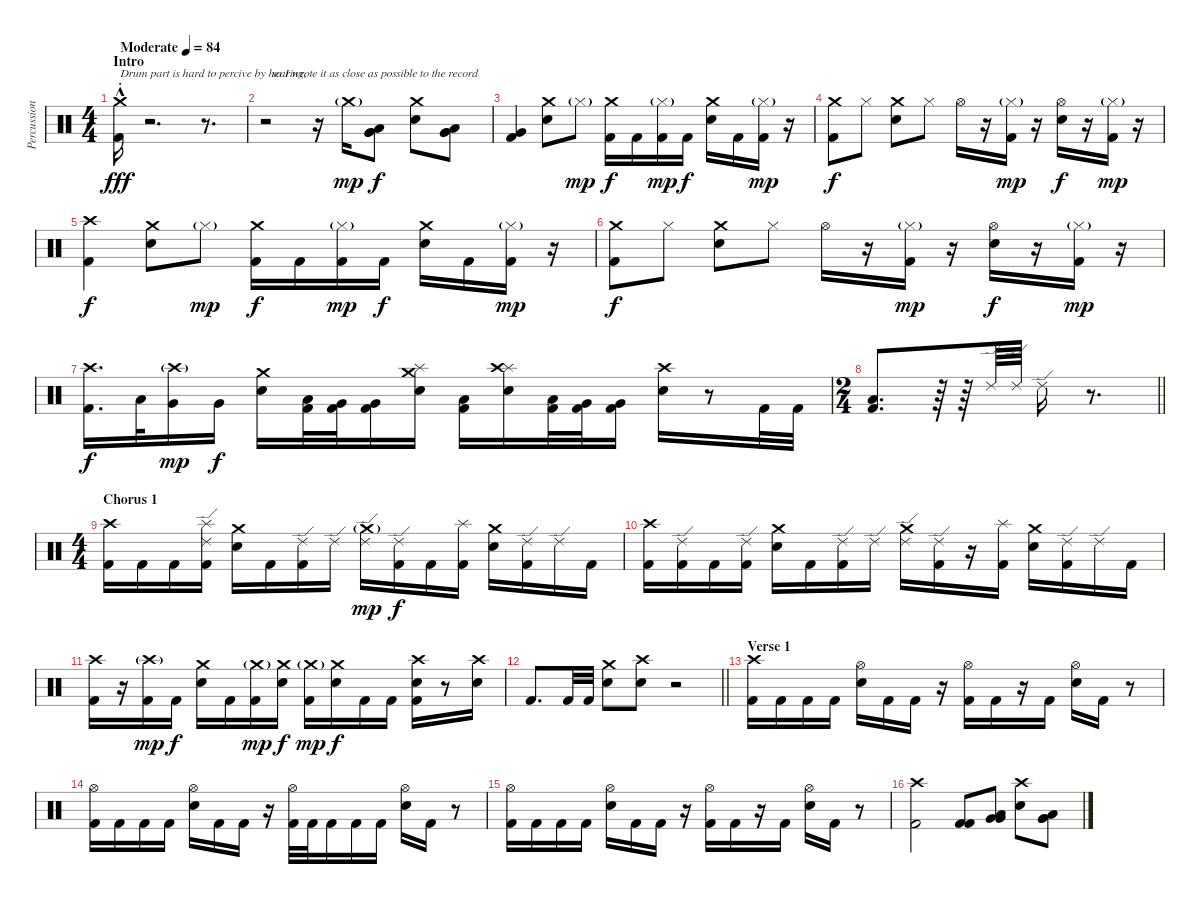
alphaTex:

\track ("Percussion" "Percussion") {instrument percussion}
\staff {score}
\articulation defaults
\ts (4 4)
\section ("" "Intro")
\tempo (84 "Moderate")
\clef neutral
\ks c
("Crash medium (hit)"{hac} "Kick (hit) 2"{st}).16{txt "Drum part is hard to percive by hearing, " dy fff volume 0} r.2{d} r.8{d} |
r.2{txt "  so I wrote it as close as possible to the record"} r.16 "Crash medium (hit)"{g}.16{dy mp volume 16} ("Very Low Tom (hit)" "Very Low Tom (hit)" "Low Floor Tom (hit)").8{dy f} ("Crash medium (hit)" "Electric Snare (hit)").8 ("Very Low Tom (hit)" "Very Low Tom (hit)" "Low Floor Tom (hit)").8 |
("Very Low Tom (hit)" "Kick (hit) 2").4 ("Crash medium (hit)" "Electric Snare (hit)").8 "Hi-Hat (closed)"{g}.8{dy mp} ("Crash medium (hit)" "Kick (hit) 2").16{dy f} "Kick (hit) 2".16 ("Hi-Hat (closed)"{g} "Kick (hit) 2").16{dy mp} "Kick (hit) 2".16{dy f} ("Crash medium (hit)" "Electric Snare (hit)").16 "Kick (hit) 2".16 ("Hi-Hat (closed)"{g} "Kick (hit) 2").16{dy mp} r.16 |
("Crash medium (hit)" "Kick (hit) 2").8{dy f} "Hi-Hat (closed)".8 ("Crash medium (hit)" "Electric Snare (hit)").8 "Hi-Hat (closed)".8 "Hi-Hat (open)".16 r.16 ("Hi-Hat (closed)"{g} "Kick (hit) 2").16{dy mp} r.16 ("Hi-Hat (open)" "Electric Snare (hit)").16{dy f} r.16 ("Hi-Hat (closed)"{g} "Kick (hit) 2").16{dy mp} r.16 |
("Crash high (hit)" "Kick (hit) 2").4{dy f} ("Crash medium (hit)" "Electric Snare (hit)").8 "Hi-Hat (closed)"{g}.8{dy mp} ("Crash medium (hit)" "Kick (hit) 2").16{dy f} "Kick (hit) 2".16 ("Hi-Hat (closed)"{g} "Kick (hit) 2").16{dy mp} "Kick (hit) 2".16{dy f} ("Crash medium (hit)" "Electric Snare (hit)").16 "Kick (hit) 2".16 ("Hi-Hat (closed)"{g} "Kick (hit) 2").16{dy mp} r.16 |
("Crash medium (hit)" "Kick (hit) 2").8{dy f} "Hi-Hat (closed)".8 ("Crash medium (hit)" "Electric Snare (hit)").8 "Hi-Hat (closed)".8 "Hi-Hat (open)".16 r.16 ("Hi-Hat (closed)"{g} "Kick (hit) 2").16{dy mp} r.16 ("Hi-Hat (open)" "Electric Snare (hit)").16{dy f} r.16 ("Hi-Hat (closed)"{g} "Kick (hit) 2").16{dy mp} r.16 |
("Crash high (hit)" "Kick (hit) 2").16{d dy f} "Low Tom (hit)".32 ("Crash high (hit)"{g} "Very Low Tom (hit)").16{dy mp} "Very Low Tom (hit)".16{dy f} ("Crash medium (hit)" "Electric Snare (hit)").16 ("Low Tom (hit)" "Kick (hit) 2").32 ("Very Low Tom (hit)" "Kick (hit) 2").32 ("Very Low Tom (hit)" "Kick (hit) 2").16 ("Splash (hit)" "Crash medium (hit)" "Electric Snare (hit)").16 ("Low Tom (hit)" "Kick (hit) 2").16 ("Splash (hit)" "Crash high (hit)" "Electric Snare (hit)").16 ("Low Tom (hit)" "Kick (hit) 2").32 ("Very Low Tom (hit)" "Kick (hit) 2").32 ("Very Low Tom (hit)" "Kick (hit) 2").16 ("Crash high (hit)" "Electric Snare (hit)").16 r.8 "Kick (hit) 2".32 "Kick (hit) 2".32 |
\ts (2 4)
\barLineRight lightlight
("Low Floor Tom (hit)" "Kick (hit) 2").8{d} r.64 r.64 "Ride (edge) 2".64 "Ride (edge) 2".64 "Ride (edge) 2".16 r.8{d} |
\ts (4 4)
\section ("" "Chorus 1")
("Crash high (hit)" "Kick (hit) 2").16 "Kick (hit) 2".16 "Kick (hit) 2".16 ("Ride (edge) 2" "Splash (hit)" "Kick (hit) 2").16 ("Crash medium (hit)" "Electric Snare (hit)").16 "Kick (hit) 2".16 ("Ride (edge) 2" "Kick (hit) 2").16 "Ride (edge) 2".16 ("Ride (edge) 2" "Crash medium (hit)"{g}).16{dy mp} ("Ride (edge) 2" "Kick (hit) 2").16{dy f} "Kick (hit) 2".16 ("Splash (hit)" "Kick (hit) 2").16 ("Crash medium (hit)" "Electric Snare (hit)").16 ("Ride (edge) 2" "Kick (hit) 2").16 "Ride (edge) 2".16 "Kick (hit) 2".16 |
("Crash high (hit)" "Kick (hit) 2").16 ("Ride (edge) 2" "Kick (hit) 2").16 "Kick (hit) 2".16 ("Ride (edge) 2" "Kick (hit) 2").16 ("Crash medium (hit)" "Electric Snare (hit)").16 "Kick (hit) 2".16 ("Ride (edge) 2" "Kick (hit) 2").16 "Ride (edge) 2".16 ("Ride (edge) 2" "Crash medium (hit)").16 ("Ride (edge) 2" "Kick (hit) 2").16 r.16 ("Splash (hit)" "Kick (hit) 2").16 ("Crash medium (hit)" "Electric Snare (hit)").16 ("Ride (edge) 2" "Kick (hit) 2").16 "Ride (edge) 2".16 "Kick (hit) 2".16 |
("Crash high (hit)" "Kick (hit) 2").16 r.16 ("Crash high (hit)"{g} "Kick (hit) 2").16{dy mp} "Kick (hit) 2".16{dy f} ("Crash medium (hit)" "Electric Snare (hit)").16 "Kick (hit) 2".16 ("Crash medium (hit)"{g} "Kick (hit) 2").16{dy mp} ("Crash medium (hit)" "Electric Snare (hit)").16{dy f} ("Crash medium (hit)"{g} "Kick (hit) 2").16{dy mp} ("Crash medium (hit)" "Electric Snare (hit)").16{dy f} "Kick (hit) 2".16 "Kick (hit) 2".16 ("Crash high (hit)" "Electric Snare (hit)" "Kick (hit) 2").16 r.8 ("Crash high (hit)" "Electric Snare (hit)").16 |
\barLineRight lightlight "Kick (hit) 2".8{d} "Kick (hit) 2".32 "Kick (hit) 2".32
("Crash medium (hit)" "Electric Snare (hit)").8 ("Crash high (hit)" "Electric Snare (hit)").8 r.2 |
\section ("" "Verse 1")
("Crash high (hit)" "Kick (hit) 2").16 "Kick (hit) 2".16 "Kick (hit) 2".16 "Kick (hit) 2".16 ("Hi-Hat (open)" "Electric Snare (hit)").16 "Kick (hit) 2".16 "Kick (hit) 2".16 r.16 ("Hi-Hat (open)" "Kick (hit) 2").16 "Kick (hit) 2".16 r.16 "Kick (hit) 2".16 ("Hi-Hat (open)" "Electric Snare (hit)").16 "Kick (hit) 2".16 r.8 |
("Hi-Hat (open)" "Kick (hit) 2").16 "Kick (hit) 2".16 "Kick (hit) 2".16 "Kick (hit) 2".16 ("Hi-Hat (open)" "Electric Snare (hit)").16 "Kick (hit) 2".16 "Kick (hit) 2".16 r.16 ("Hi-Hat (open)" "Kick (hit) 2").32 "Kick (hit) 2".32 "Kick (hit) 2".16 "Kick (hit) 2".16 "Kick (hit) 2".16 ("Hi-Hat (open)" "Electric Snare (hit)").16 "Kick (hit) 2".16 r.8 |
("Hi-Hat (open)" "Kick (hit) 2").16 "Kick (hit) 2".16 "Kick (hit) 2".16 "Kick (hit) 2".16 ("Hi-Hat (open)" "Electric Snare (hit)").16 "Kick (hit) 2".16 "Kick (hit) 2".16 r.16 ("Hi-Hat (open)" "Kick (hit) 2").16 "Kick (hit) 2".16 r.16 "Kick (hit) 2".16 ("Hi-Hat (open)" "Electric Snare (hit)").16 "Kick (hit) 2".16 r.8 |
("Crash high (hit)" "Kick (hit) 2").2 ("Kick (hit) 2" "Kick (hit) 2").8 ("Low Tom (hit)" "Very Low Tom (hit)" "Very Low Tom (hit)").8 ("Crash high (hit)" "Electric Snare (hit)").8 ("Low Tom (hit)" "Very Low Tom (hit)" "Very Low Tom (hit)").8
